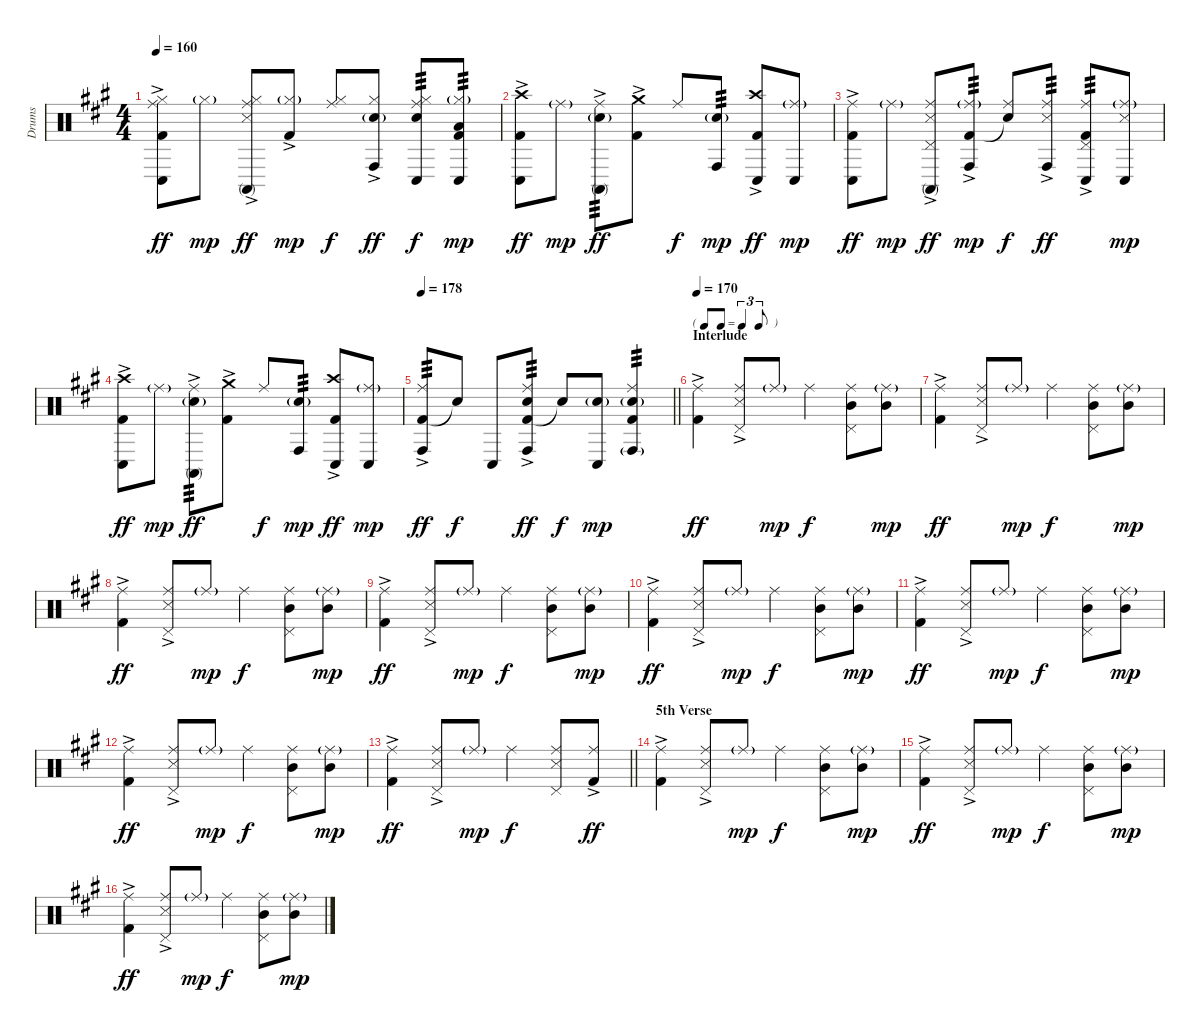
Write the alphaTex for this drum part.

\track ("Drums" "Drums") {instrument percussion}
\staff {score}
\articulation defaults
\ts (4 4)
\tempo 160
\clef neutral
\ks a
("Kick (hit) 2"{ac} "Conga low (hit)" "Ride (middle)" "Hi-Hat (closed)").8{dy ff} "Hi-Hat (closed)"{g}.8{dy mp} ("Snare (side stick) 3"{ac} "Conga high (mute)"{ac} "Ride (middle)" "Hi-Hat (closed)"{ac}).8{dy ff} ("Kick (hit) 2"{ac} "Hi-Hat (closed)"{g}).8{dy mp} ("Ride (middle)" "Hi-Hat (closed)").8{dy f} ("Snare (hit) 2"{g} "Conga high (hit)" "Hi-Hat (closed)"{ac}).8{dy ff} ("Snare (hit) 2" "Conga low (hit)" "Ride (middle)" "Hi-Hat (closed)").8{tp 3 dy f} ("Kick (hit) 2" "Low Tom (hit)" "Conga low (hit)" "Hi-Hat (closed)"{g}).8{tp 3 dy mp} |
("Kick (hit) 2"{ac} "Conga low (hit)" "Crash high (hit)").8{dy ff} "Ride (middle)"{g}.8{dy mp} ("Snare (hit) 2"{g} "Conga high (mute)"{ac} "Ride (middle)").8{tp 3 dy ff} ("Kick (hit) 2"{ac} "Crash medium (hit)").8 "Ride (middle)".8{dy f} ("Snare (hit) 2"{g} "Conga high (hit)").8{tp 3 dy mp} ("Kick (hit) 2"{ac} "Conga low (hit)" "Crash high (hit)").8{dy ff} ("Conga low (hit)" "Ride (middle)"{g}).8{dy mp} |
("Kick (hit) 2"{ac} "Conga low (hit)" "Ride (middle)").8{dy ff} "Ride (middle)"{g}.8{dy mp} ("Snare (side stick) 3" "Conga high (mute)"{ac} "Pedal Hi-Hat (hit)" "Ride (middle)").8{dy ff} ("Kick (hit) 2"{ac} "Conga high (hit)" "Ride (middle)"{g}).8{tp 3 dy mp} ("Snare (hit)"{t} "Ride (middle)").8{dy f} ("Snare (side stick) 3" "Conga high (hit)" "Ride (middle)"{ac}).8{tp 3 dy ff} ("Kick (hit) 2"{ac} "Conga low (hit)" "Pedal Hi-Hat (hit)" "Ride (middle)").8{tp 3} ("Snare (side stick) 3" "Conga low (hit)" "Ride (middle)"{g}).8{dy mp} |
("Kick (hit) 2"{ac} "Conga low (hit)" "Crash high (hit)").8{dy ff} "Ride (middle)"{g}.8{dy mp} ("Snare (hit) 2"{g} "Conga high (mute)"{ac} "Ride (middle)").8{tp 3 dy ff} ("Kick (hit) 2"{ac} "Crash medium (hit)").8 "Ride (middle)".8{dy f} ("Snare (hit) 2"{g} "Conga high (hit)").8{tp 3 dy mp} ("Kick (hit) 2"{ac} "Conga low (hit)" "Crash high (hit)").8{dy ff} ("Conga low (hit)" "Ride (middle)"{g}).8{dy mp} |
\tempo 178
\barLineRight lightlight
("Kick (hit) 2" "Ride (middle)" "Conga high (hit)"{ac}).8{tp 3 dy ff} "Snare (hit)"{t}.8{dy f} "Conga low (hit)".8 ("Kick (hit) 2" "Snare (hit) 2" "Ride (middle)" "Conga high (hit)"{ac}).8{tp 3 dy ff} "Snare (hit)"{t}.8{dy f} ("Snare (hit) 2"{g} "Conga low (hit)").8{dy mp} ("Kick (hit) 2" "Snare (hit) 2"{g} "Ride (middle)" "Conga high (hit)"{g}).4{tp 3} |
\tf triplet8th
\section ("" "Interlude")
\tempo 170
("Kick (hit) 2"{ac} "Ride (middle)").4{dy ff} ("Snare (side stick) 3"{ac} "Pedal Hi-Hat (hit)" "Ride (middle)").8 "Ride (middle)"{g}.8{dy mp} "Ride (middle)".4{dy f} ("Mid Tom (hit)" "Pedal Hi-Hat (hit)" "Ride (middle)").8 ("Mid Tom (hit)" "Ride (middle)"{g}).8{dy mp} |
("Kick (hit) 2"{ac} "Ride (middle)").4{dy ff} ("Snare (side stick) 3"{ac} "Pedal Hi-Hat (hit)" "Ride (middle)").8 "Ride (middle)"{g}.8{dy mp} "Ride (middle)".4{dy f} ("Mid Tom (hit)" "Pedal Hi-Hat (hit)" "Ride (middle)").8 ("Mid Tom (hit)" "Ride (middle)"{g}).8{dy mp} |
("Kick (hit) 2"{ac} "Ride (middle)").4{dy ff} ("Snare (side stick) 3"{ac} "Pedal Hi-Hat (hit)" "Ride (middle)").8 "Ride (middle)"{g}.8{dy mp} "Ride (middle)".4{dy f} ("Mid Tom (hit)" "Pedal Hi-Hat (hit)" "Ride (middle)").8 ("Mid Tom (hit)" "Ride (middle)"{g}).8{dy mp} |
("Kick (hit) 2"{ac} "Ride (middle)").4{dy ff} ("Snare (side stick) 3"{ac} "Pedal Hi-Hat (hit)" "Ride (middle)").8 "Ride (middle)"{g}.8{dy mp} "Ride (middle)".4{dy f} ("Mid Tom (hit)" "Pedal Hi-Hat (hit)" "Ride (middle)").8 ("Mid Tom (hit)" "Ride (middle)"{g}).8{dy mp} |
("Kick (hit) 2"{ac} "Ride (middle)").4{dy ff} ("Snare (side stick) 3"{ac} "Pedal Hi-Hat (hit)" "Ride (middle)").8 "Ride (middle)"{g}.8{dy mp} "Ride (middle)".4{dy f} ("Mid Tom (hit)" "Pedal Hi-Hat (hit)" "Ride (middle)").8 ("Mid Tom (hit)" "Ride (middle)"{g}).8{dy mp} |
("Kick (hit) 2"{ac} "Ride (middle)").4{dy ff} ("Snare (side stick) 3"{ac} "Pedal Hi-Hat (hit)" "Ride (middle)").8 "Ride (middle)"{g}.8{dy mp} "Ride (middle)".4{dy f} ("Mid Tom (hit)" "Pedal Hi-Hat (hit)" "Ride (middle)").8 ("Mid Tom (hit)" "Ride (middle)"{g}).8{dy mp} |
("Kick (hit) 2"{ac} "Ride (middle)").4{dy ff} ("Snare (side stick) 3"{ac} "Pedal Hi-Hat (hit)" "Ride (middle)").8 "Ride (middle)"{g}.8{dy mp} "Ride (middle)".4{dy f} ("Mid Tom (hit)" "Pedal Hi-Hat (hit)" "Ride (middle)").8 ("Mid Tom (hit)" "Ride (middle)"{g}).8{dy mp} |
\barLineRight lightlight
("Kick (hit) 2"{ac} "Ride (middle)").4{dy ff} ("Snare (side stick) 3"{ac} "Pedal Hi-Hat (hit)" "Ride (middle)").8 "Ride (middle)"{g}.8{dy mp} "Ride (middle)".4{dy f} ("Snare (side stick) 3" "Pedal Hi-Hat (hit)" "Ride (middle)").8 ("Kick (hit) 2"{ac} "Ride (middle)").8{dy ff} |
\section ("" "5th Verse")
("Kick (hit) 2"{ac} "Ride (middle)").4 ("Snare (side stick) 3"{ac} "Pedal Hi-Hat (hit)" "Ride (middle)").8 "Ride (middle)"{g}.8{dy mp} "Ride (middle)".4{dy f} ("Mid Tom (hit)" "Pedal Hi-Hat (hit)" "Ride (middle)").8 ("Mid Tom (hit)" "Ride (middle)"{g}).8{dy mp} |
("Kick (hit) 2"{ac} "Ride (middle)").4{dy ff} ("Snare (side stick) 3"{ac} "Pedal Hi-Hat (hit)" "Ride (middle)").8 "Ride (middle)"{g}.8{dy mp} "Ride (middle)".4{dy f} ("Mid Tom (hit)" "Pedal Hi-Hat (hit)" "Ride (middle)").8 ("Mid Tom (hit)" "Ride (middle)"{g}).8{dy mp} |
("Kick (hit) 2"{ac} "Ride (middle)").4{dy ff} ("Snare (side stick) 3"{ac} "Pedal Hi-Hat (hit)" "Ride (middle)").8 "Ride (middle)"{g}.8{dy mp} "Ride (middle)".4{dy f} ("Mid Tom (hit)" "Pedal Hi-Hat (hit)" "Ride (middle)").8 ("Mid Tom (hit)" "Ride (middle)"{g}).8{dy mp}
